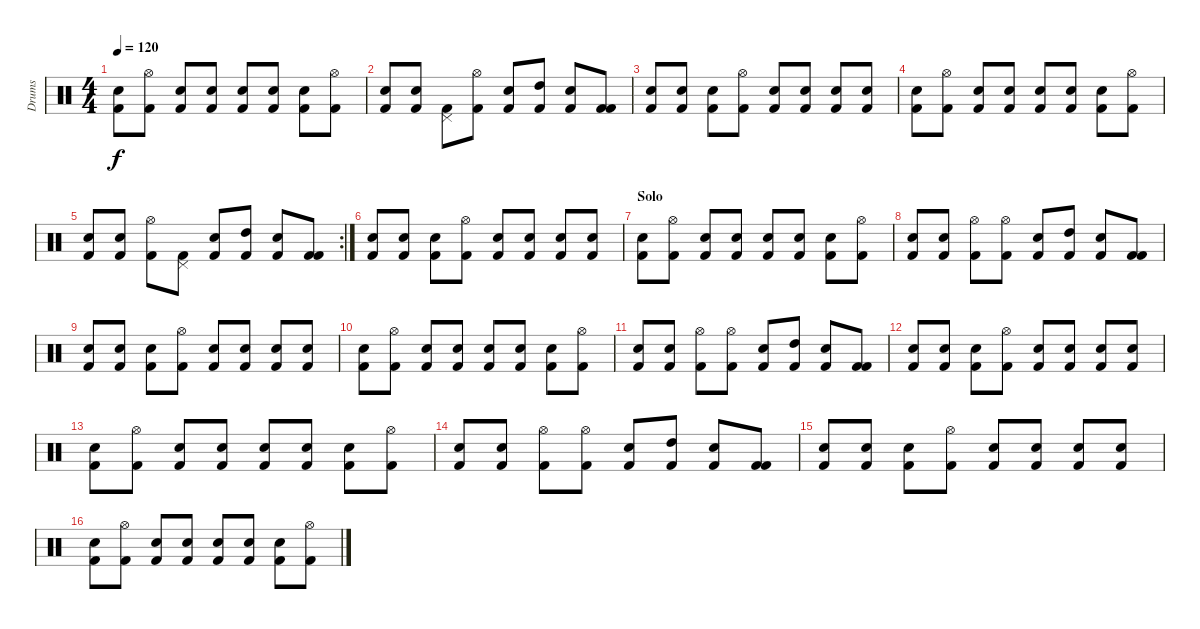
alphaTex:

\track ("Drums" "Drums") {instrument percussion}
\staff {score}
\articulation defaults
\ts (4 4)
\tempo 120
\clef neutral
\ks c
("Electric Snare (hit)" "Kick (hit) 2").8{dy f} ("Hi-Hat (open)" "Kick (hit) 2").8 ("Electric Snare (hit)" "Kick (hit) 2").8 ("Electric Snare (hit)" "Kick (hit) 2").8 ("Electric Snare (hit)" "Kick (hit) 2").8 ("Electric Snare (hit)" "Kick (hit) 2").8 ("Electric Snare (hit)" "Kick (hit) 2").8 ("Hi-Hat (open)" "Kick (hit) 2").8 |
("Electric Snare (hit)" "Kick (hit) 2").8 ("Electric Snare (hit)" "Kick (hit) 2").8 ("Pedal Hi-Hat (hit)" "Kick (hit) 2").8 ("Hi-Hat (open)" "Kick (hit) 2").8 ("Electric Snare (hit)" "Kick (hit) 2").8 ("High Tom (hit)" "Kick (hit) 2").8 ("Electric Snare (hit)" "Kick (hit) 2").8 ("Kick (hit) 2" "Kick (hit) 2").8 |
("Electric Snare (hit)" "Kick (hit) 2").8 ("Electric Snare (hit)" "Kick (hit) 2").8 ("Electric Snare (hit)" "Kick (hit) 2").8 ("Hi-Hat (open)" "Kick (hit) 2").8 ("Electric Snare (hit)" "Kick (hit) 2").8 ("Electric Snare (hit)" "Kick (hit) 2").8 ("Electric Snare (hit)" "Kick (hit) 2").8 ("Electric Snare (hit)" "Kick (hit) 2").8 |
("Electric Snare (hit)" "Kick (hit) 2").8 ("Hi-Hat (open)" "Kick (hit) 2").8 ("Electric Snare (hit)" "Kick (hit) 2").8 ("Electric Snare (hit)" "Kick (hit) 2").8 ("Electric Snare (hit)" "Kick (hit) 2").8 ("Electric Snare (hit)" "Kick (hit) 2").8 ("Electric Snare (hit)" "Kick (hit) 2").8 ("Hi-Hat (open)" "Kick (hit) 2").8 |
\rc 2
("Electric Snare (hit)" "Kick (hit) 2").8 ("Electric Snare (hit)" "Kick (hit) 2").8 ("Hi-Hat (open)" "Kick (hit) 2").8 ("Pedal Hi-Hat (hit)" "Kick (hit) 2").8 ("Electric Snare (hit)" "Kick (hit) 2").8 ("High Tom (hit)" "Kick (hit) 2").8 ("Electric Snare (hit)" "Kick (hit) 2").8 ("Kick (hit) 2" "Kick (hit) 2").8 |
("Electric Snare (hit)" "Kick (hit) 2").8 ("Electric Snare (hit)" "Kick (hit) 2").8 ("Electric Snare (hit)" "Kick (hit) 2").8 ("Hi-Hat (open)" "Kick (hit) 2").8 ("Electric Snare (hit)" "Kick (hit) 2").8 ("Electric Snare (hit)" "Kick (hit) 2").8 ("Electric Snare (hit)" "Kick (hit) 2").8 ("Electric Snare (hit)" "Kick (hit) 2").8 |
\section ("" "Solo")
("Electric Snare (hit)" "Kick (hit) 2").8 ("Hi-Hat (open)" "Kick (hit) 2").8 ("Electric Snare (hit)" "Kick (hit) 2").8 ("Electric Snare (hit)" "Kick (hit) 2").8 ("Electric Snare (hit)" "Kick (hit) 2").8 ("Electric Snare (hit)" "Kick (hit) 2").8 ("Electric Snare (hit)" "Kick (hit) 2").8 ("Hi-Hat (open)" "Kick (hit) 2").8 |
("Electric Snare (hit)" "Kick (hit) 2").8 ("Electric Snare (hit)" "Kick (hit) 2").8 ("Hi-Hat (open)" "Kick (hit) 2").8 ("Hi-Hat (open)" "Kick (hit) 2").8 ("Electric Snare (hit)" "Kick (hit) 2").8 ("High Tom (hit)" "Kick (hit) 2").8 ("Electric Snare (hit)" "Kick (hit) 2").8 ("Kick (hit) 2" "Kick (hit) 2").8 |
("Electric Snare (hit)" "Kick (hit) 2").8 ("Electric Snare (hit)" "Kick (hit) 2").8 ("Electric Snare (hit)" "Kick (hit) 2").8 ("Hi-Hat (open)" "Kick (hit) 2").8 ("Electric Snare (hit)" "Kick (hit) 2").8 ("Electric Snare (hit)" "Kick (hit) 2").8 ("Electric Snare (hit)" "Kick (hit) 2").8 ("Electric Snare (hit)" "Kick (hit) 2").8 |
("Electric Snare (hit)" "Kick (hit) 2").8 ("Hi-Hat (open)" "Kick (hit) 2").8 ("Electric Snare (hit)" "Kick (hit) 2").8 ("Electric Snare (hit)" "Kick (hit) 2").8 ("Electric Snare (hit)" "Kick (hit) 2").8 ("Electric Snare (hit)" "Kick (hit) 2").8 ("Electric Snare (hit)" "Kick (hit) 2").8 ("Hi-Hat (open)" "Kick (hit) 2").8 |
("Electric Snare (hit)" "Kick (hit) 2").8 ("Electric Snare (hit)" "Kick (hit) 2").8 ("Hi-Hat (open)" "Kick (hit) 2").8 ("Hi-Hat (open)" "Kick (hit) 2").8 ("Electric Snare (hit)" "Kick (hit) 2").8 ("High Tom (hit)" "Kick (hit) 2").8 ("Electric Snare (hit)" "Kick (hit) 2").8 ("Kick (hit) 2" "Kick (hit) 2").8 |
("Electric Snare (hit)" "Kick (hit) 2").8 ("Electric Snare (hit)" "Kick (hit) 2").8 ("Electric Snare (hit)" "Kick (hit) 2").8 ("Hi-Hat (open)" "Kick (hit) 2").8 ("Electric Snare (hit)" "Kick (hit) 2").8 ("Electric Snare (hit)" "Kick (hit) 2").8 ("Electric Snare (hit)" "Kick (hit) 2").8 ("Electric Snare (hit)" "Kick (hit) 2").8 |
("Electric Snare (hit)" "Kick (hit) 2").8 ("Hi-Hat (open)" "Kick (hit) 2").8 ("Electric Snare (hit)" "Kick (hit) 2").8 ("Electric Snare (hit)" "Kick (hit) 2").8 ("Electric Snare (hit)" "Kick (hit) 2").8 ("Electric Snare (hit)" "Kick (hit) 2").8 ("Electric Snare (hit)" "Kick (hit) 2").8 ("Hi-Hat (open)" "Kick (hit) 2").8 |
("Electric Snare (hit)" "Kick (hit) 2").8 ("Electric Snare (hit)" "Kick (hit) 2").8 ("Hi-Hat (open)" "Kick (hit) 2").8 ("Hi-Hat (open)" "Kick (hit) 2").8 ("Electric Snare (hit)" "Kick (hit) 2").8 ("High Tom (hit)" "Kick (hit) 2").8 ("Electric Snare (hit)" "Kick (hit) 2").8 ("Kick (hit) 2" "Kick (hit) 2").8 |
("Electric Snare (hit)" "Kick (hit) 2").8 ("Electric Snare (hit)" "Kick (hit) 2").8 ("Electric Snare (hit)" "Kick (hit) 2").8 ("Hi-Hat (open)" "Kick (hit) 2").8 ("Electric Snare (hit)" "Kick (hit) 2").8 ("Electric Snare (hit)" "Kick (hit) 2").8 ("Electric Snare (hit)" "Kick (hit) 2").8 ("Electric Snare (hit)" "Kick (hit) 2").8 |
("Electric Snare (hit)" "Kick (hit) 2").8 ("Hi-Hat (open)" "Kick (hit) 2").8 ("Electric Snare (hit)" "Kick (hit) 2").8 ("Electric Snare (hit)" "Kick (hit) 2").8 ("Electric Snare (hit)" "Kick (hit) 2").8 ("Electric Snare (hit)" "Kick (hit) 2").8 ("Electric Snare (hit)" "Kick (hit) 2").8 ("Hi-Hat (open)" "Kick (hit) 2").8
